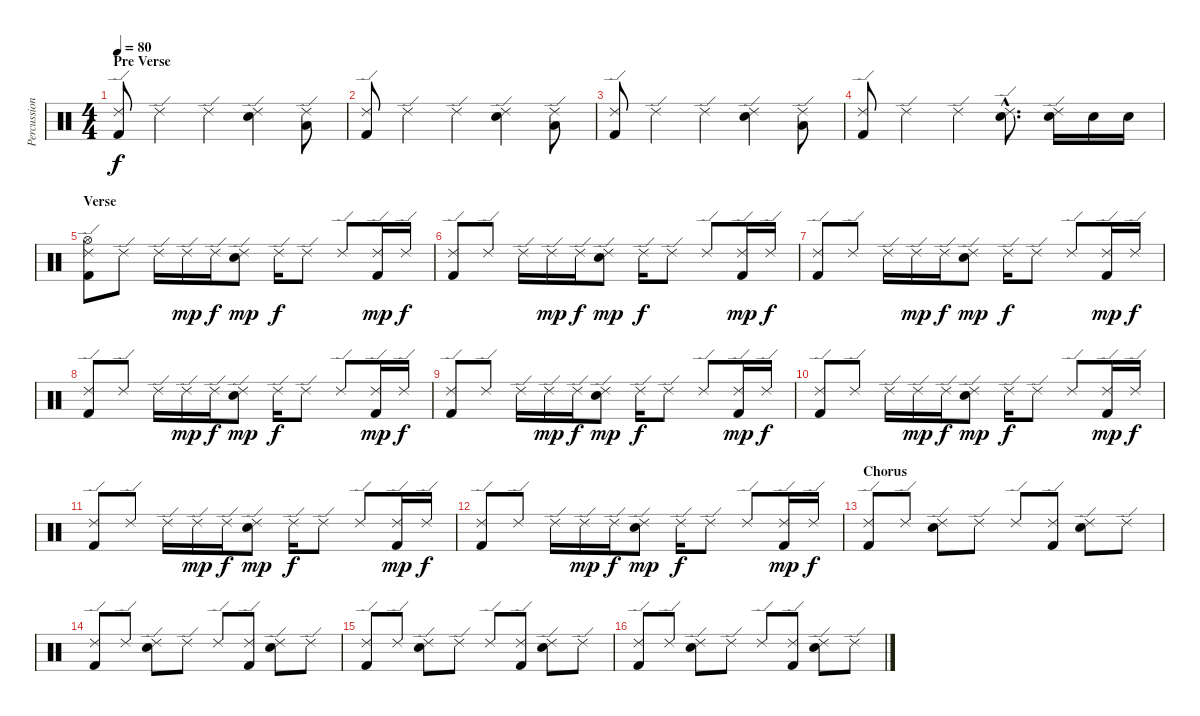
\track ("Percussion" "Percussion") {instrument percussion}
\staff {score}
\articulation defaults
\ts (4 4)
\section ("" "Pre Verse")
\tempo 80
\clef neutral
\ks c
("Ride (edge) 2" "Kick (hit) 2").8{dy f} "Ride (edge) 2".4 "Ride (edge) 2".4 ("Ride (edge) 2" "Electric Snare (hit)").4 ("Ride (edge) 2" "Low Tom (hit)").8 |
("Ride (edge) 2" "Kick (hit) 2").8 "Ride (edge) 2".4 "Ride (edge) 2".4 ("Ride (edge) 2" "Electric Snare (hit)").4 ("Ride (edge) 2" "Low Tom (hit)").8 |
("Ride (edge) 2" "Kick (hit) 2").8 "Ride (edge) 2".4 "Ride (edge) 2".4 ("Ride (edge) 2" "Electric Snare (hit)").4 ("Ride (edge) 2" "Low Tom (hit)").8 |
("Ride (edge) 2" "Kick (hit) 2").8 "Ride (edge) 2".4 "Ride (edge) 2".4 ("Ride (edge) 2"{hac} "Electric Snare (hit)"{hac}).8{d} ("Ride (edge) 2" "Electric Snare (hit)").16 "Electric Snare (hit)".16 "Electric Snare (hit)".16 |
\section ("" "Verse")
("Ride (edge) 2" "Hi-Hat (open)" "Kick (hit) 2").8 "Ride (edge) 2".8 "Ride (edge) 2".16 "Ride (edge) 2".16{dy mp} "Ride (edge) 2".16{dy f} ("Ride (edge) 2" "Electric Snare (hit)").8{dy mp} "Ride (edge) 2".16{dy f} "Ride (edge) 2".8 "Ride (edge) 2".8 ("Ride (edge) 2" "Kick (hit) 2").16{dy mp} "Ride (edge) 2".16{dy f} |
("Ride (edge) 2" "Kick (hit) 2").8 "Ride (edge) 2".8 "Ride (edge) 2".16 "Ride (edge) 2".16{dy mp} "Ride (edge) 2".16{dy f} ("Ride (edge) 2" "Electric Snare (hit)").8{dy mp} "Ride (edge) 2".16{dy f} "Ride (edge) 2".8 "Ride (edge) 2".8 ("Ride (edge) 2" "Kick (hit) 2").16{dy mp} "Ride (edge) 2".16{dy f} |
("Ride (edge) 2" "Kick (hit) 2").8 "Ride (edge) 2".8 "Ride (edge) 2".16 "Ride (edge) 2".16{dy mp} "Ride (edge) 2".16{dy f} ("Ride (edge) 2" "Electric Snare (hit)").8{dy mp} "Ride (edge) 2".16{dy f} "Ride (edge) 2".8 "Ride (edge) 2".8 ("Ride (edge) 2" "Kick (hit) 2").16{dy mp} "Ride (edge) 2".16{dy f} |
("Ride (edge) 2" "Kick (hit) 2").8 "Ride (edge) 2".8 "Ride (edge) 2".16 "Ride (edge) 2".16{dy mp} "Ride (edge) 2".16{dy f} ("Ride (edge) 2" "Electric Snare (hit)").8{dy mp} "Ride (edge) 2".16{dy f} "Ride (edge) 2".8 "Ride (edge) 2".8 ("Ride (edge) 2" "Kick (hit) 2").16{dy mp} "Ride (edge) 2".16{dy f} |
("Ride (edge) 2" "Kick (hit) 2").8 "Ride (edge) 2".8 "Ride (edge) 2".16 "Ride (edge) 2".16{dy mp} "Ride (edge) 2".16{dy f} ("Ride (edge) 2" "Electric Snare (hit)").8{dy mp} "Ride (edge) 2".16{dy f} "Ride (edge) 2".8 "Ride (edge) 2".8 ("Ride (edge) 2" "Kick (hit) 2").16{dy mp} "Ride (edge) 2".16{dy f} |
("Ride (edge) 2" "Kick (hit) 2").8 "Ride (edge) 2".8 "Ride (edge) 2".16 "Ride (edge) 2".16{dy mp} "Ride (edge) 2".16{dy f} ("Ride (edge) 2" "Electric Snare (hit)").8{dy mp} "Ride (edge) 2".16{dy f} "Ride (edge) 2".8 "Ride (edge) 2".8 ("Ride (edge) 2" "Kick (hit) 2").16{dy mp} "Ride (edge) 2".16{dy f} |
("Ride (edge) 2" "Kick (hit) 2").8 "Ride (edge) 2".8 "Ride (edge) 2".16 "Ride (edge) 2".16{dy mp} "Ride (edge) 2".16{dy f} ("Ride (edge) 2" "Electric Snare (hit)").8{dy mp} "Ride (edge) 2".16{dy f} "Ride (edge) 2".8 "Ride (edge) 2".8 ("Ride (edge) 2" "Kick (hit) 2").16{dy mp} "Ride (edge) 2".16{dy f} |
("Ride (edge) 2" "Kick (hit) 2").8 "Ride (edge) 2".8 "Ride (edge) 2".16 "Ride (edge) 2".16{dy mp} "Ride (edge) 2".16{dy f} ("Ride (edge) 2" "Electric Snare (hit)").8{dy mp} "Ride (edge) 2".16{dy f} "Ride (edge) 2".8 "Ride (edge) 2".8 ("Ride (edge) 2" "Kick (hit) 2").16{dy mp} "Ride (edge) 2".16{dy f} |
\section ("" "Chorus")
("Ride (edge) 2" "Kick (hit) 2").8 "Ride (edge) 2".8 ("Ride (edge) 2" "Electric Snare (hit)").8 "Ride (edge) 2".8 "Ride (edge) 2".8 ("Ride (edge) 2" "Kick (hit) 2").8 ("Ride (edge) 2" "Electric Snare (hit)").8 "Ride (edge) 2".8 |
("Ride (edge) 2" "Kick (hit) 2").8 "Ride (edge) 2".8 ("Ride (edge) 2" "Electric Snare (hit)").8 "Ride (edge) 2".8 "Ride (edge) 2".8 ("Ride (edge) 2" "Kick (hit) 2").8 ("Ride (edge) 2" "Electric Snare (hit)").8 "Ride (edge) 2".8 |
("Ride (edge) 2" "Kick (hit) 2").8 "Ride (edge) 2".8 ("Ride (edge) 2" "Electric Snare (hit)").8 "Ride (edge) 2".8 "Ride (edge) 2".8 ("Ride (edge) 2" "Kick (hit) 2").8 ("Ride (edge) 2" "Electric Snare (hit)").8 "Ride (edge) 2".8 |
("Ride (edge) 2" "Kick (hit) 2").8 "Ride (edge) 2".8 ("Ride (edge) 2" "Electric Snare (hit)").8 "Ride (edge) 2".8 "Ride (edge) 2".8 ("Ride (edge) 2" "Kick (hit) 2").8 ("Ride (edge) 2" "Electric Snare (hit)").8 "Ride (edge) 2".8
